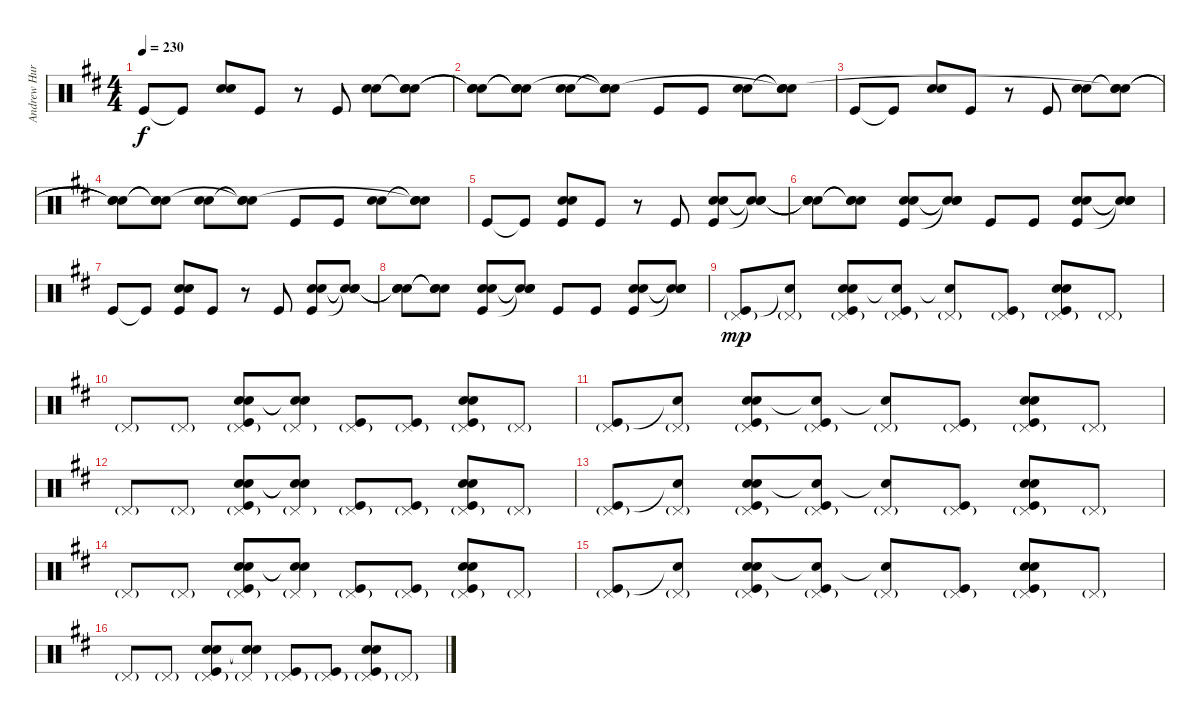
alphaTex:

\track ("Andrew Hurley" "Andrew Hur") {instrument percussion}
\staff {score}
\articulation defaults
\ts (4 4)
\tempo 230
\clef neutral
\ks d "Kick (hit)".8{dy f} "Kick (hit)"{t}.8
("Snare (hit) 2" "Electric Snare (hit)").8 "Kick (hit)".8 r.8 "Kick (hit)".8 ("Electric Snare (hit)" "Snare (hit) 2").8 ("Snare (hit)"{t} "Snare (hit)"{t} "Snare (hit)").8 |
("Snare (hit)"{t} "Snare (hit)"{t} "Snare (hit)"{t}).8 ("Snare (hit)"{t} "Snare (hit)"{t} "Snare (hit)"{t}).8 ("Electric Snare (hit)" "Snare (hit) 2").8 ("Snare (hit)"{t} "Snare (hit)"{t} "Snare (hit)"{t}).8 "Kick (hit)".8 "Kick (hit)".8 ("Electric Snare (hit)" "Snare (hit) 2").8 ("Snare (hit)"{t} "Snare (hit)"{t} "Snare (hit)"{t}).8 |
"Kick (hit)".8 "Kick (hit)"{t}.8 ("Snare (hit) 2" "Electric Snare (hit)").8 "Kick (hit)".8 r.8 "Kick (hit)".8 ("Electric Snare (hit)" "Snare (hit) 2").8 ("Snare (hit)"{t} "Snare (hit)"{t} "Snare (hit)"{t}).8 |
("Snare (hit)"{t} "Snare (hit)"{t} "Snare (hit)"{t}).8 ("Snare (hit)"{t} "Snare (hit)"{t} "Snare (hit)"{t}).8 ("Electric Snare (hit)" "Snare (hit) 2").8 ("Snare (hit)"{t} "Snare (hit)"{t} "Snare (hit)"{t}).8 "Kick (hit)".8 "Kick (hit)".8 ("Electric Snare (hit)" "Snare (hit) 2").8 ("Snare (hit)"{t} "Snare (hit)"{t} "Snare (hit)"{t}).8 |
"Kick (hit)".8 "Kick (hit)"{t}.8 ("Kick (hit)" "Snare (hit) 2" "Electric Snare (hit)").8 "Kick (hit)".8 r.8 "Kick (hit)".8 ("Electric Snare (hit)" "Snare (hit) 2" "Kick (hit)").8 ("Snare (hit)"{t} "Snare (hit)"{t} "Snare (hit)"{t}).8 |
("Snare (hit)"{t} "Snare (hit)"{t} "Snare (hit)"{t}).8 ("Snare (hit)"{t} "Snare (hit)"{t} "Snare (hit)"{t}).8 ("Electric Snare (hit)" "Snare (hit) 2" "Kick (hit)").8 ("Snare (hit)"{t} "Snare (hit)"{t} "Snare (hit)"{t}).8 "Kick (hit)".8 "Kick (hit)".8 ("Electric Snare (hit)" "Snare (hit) 2" "Kick (hit)").8 ("Snare (hit)"{t} "Snare (hit)"{t} "Snare (hit)"{t}).8 |
"Kick (hit)".8 "Kick (hit)"{t}.8 ("Kick (hit)" "Snare (hit) 2" "Electric Snare (hit)").8 "Kick (hit)".8 r.8 "Kick (hit)".8 ("Electric Snare (hit)" "Snare (hit) 2" "Kick (hit)").8 ("Snare (hit)"{t} "Snare (hit)"{t} "Snare (hit)"{t}).8 |
("Snare (hit)"{t} "Snare (hit)"{t} "Snare (hit)"{t}).8 ("Snare (hit)"{t} "Snare (hit)"{t} "Snare (hit)"{t}).8 ("Electric Snare (hit)" "Snare (hit) 2" "Kick (hit)").8 ("Snare (hit)"{t} "Snare (hit)"{t} "Snare (hit)"{t}).8 "Kick (hit)".8 "Kick (hit)".8 ("Electric Snare (hit)" "Snare (hit) 2" "Kick (hit)").8 ("Snare (hit)"{t} "Snare (hit)"{t} "Snare (hit)"{t}).8 |
("Pedal Hi-Hat (hit)"{g} "Kick (hit)").8{dy mp} ("Pedal Hi-Hat (hit)"{g} "Snare (hit)"{t}).8 ("Pedal Hi-Hat (hit)"{g} "Snare (hit) 2" "Electric Snare (hit)" "Kick (hit)").8 ("Pedal Hi-Hat (hit)"{g} "Snare (hit)"{t} "Kick (hit)").8 ("Pedal Hi-Hat (hit)"{g} "Snare (hit)"{t}).8 ("Pedal Hi-Hat (hit)"{g} "Kick (hit)").8 ("Pedal Hi-Hat (hit)"{g} "Snare (hit) 2" "Electric Snare (hit)" "Kick (hit)").8 "Pedal Hi-Hat (hit)"{g}.8 |
"Pedal Hi-Hat (hit)"{g}.8 "Pedal Hi-Hat (hit)"{g}.8 ("Pedal Hi-Hat (hit)"{g} "Snare (hit) 2" "Electric Snare (hit)" "Kick (hit)").8 ("Pedal Hi-Hat (hit)"{g} "Snare (hit)"{t} "Snare (hit)"{t}).8 ("Pedal Hi-Hat (hit)"{g} "Kick (hit)").8 ("Pedal Hi-Hat (hit)"{g} "Kick (hit)").8 ("Pedal Hi-Hat (hit)"{g} "Snare (hit) 2" "Electric Snare (hit)" "Kick (hit)").8 "Pedal Hi-Hat (hit)"{g}.8 |
("Pedal Hi-Hat (hit)"{g} "Kick (hit)").8 ("Pedal Hi-Hat (hit)"{g} "Snare (hit)"{t}).8 ("Pedal Hi-Hat (hit)"{g} "Snare (hit) 2" "Electric Snare (hit)" "Kick (hit)").8 ("Pedal Hi-Hat (hit)"{g} "Snare (hit)"{t} "Kick (hit)").8 ("Pedal Hi-Hat (hit)"{g} "Snare (hit)"{t}).8 ("Pedal Hi-Hat (hit)"{g} "Kick (hit)").8 ("Pedal Hi-Hat (hit)"{g} "Snare (hit) 2" "Electric Snare (hit)" "Kick (hit)").8 "Pedal Hi-Hat (hit)"{g}.8 |
"Pedal Hi-Hat (hit)"{g}.8 "Pedal Hi-Hat (hit)"{g}.8 ("Pedal Hi-Hat (hit)"{g} "Snare (hit) 2" "Electric Snare (hit)" "Kick (hit)").8 ("Pedal Hi-Hat (hit)"{g} "Snare (hit)"{t} "Snare (hit)"{t}).8 ("Pedal Hi-Hat (hit)"{g} "Kick (hit)").8 ("Pedal Hi-Hat (hit)"{g} "Kick (hit)").8 ("Pedal Hi-Hat (hit)"{g} "Snare (hit) 2" "Electric Snare (hit)" "Kick (hit)").8 "Pedal Hi-Hat (hit)"{g}.8 |
("Pedal Hi-Hat (hit)"{g} "Kick (hit)").8 ("Pedal Hi-Hat (hit)"{g} "Snare (hit)"{t}).8 ("Pedal Hi-Hat (hit)"{g} "Snare (hit) 2" "Electric Snare (hit)" "Kick (hit)").8 ("Pedal Hi-Hat (hit)"{g} "Snare (hit)"{t} "Kick (hit)").8 ("Pedal Hi-Hat (hit)"{g} "Snare (hit)"{t}).8 ("Pedal Hi-Hat (hit)"{g} "Kick (hit)").8 ("Pedal Hi-Hat (hit)"{g} "Snare (hit) 2" "Electric Snare (hit)" "Kick (hit)").8 "Pedal Hi-Hat (hit)"{g}.8 |
"Pedal Hi-Hat (hit)"{g}.8 "Pedal Hi-Hat (hit)"{g}.8 ("Pedal Hi-Hat (hit)"{g} "Snare (hit) 2" "Electric Snare (hit)" "Kick (hit)").8 ("Pedal Hi-Hat (hit)"{g} "Snare (hit)"{t} "Snare (hit)"{t}).8 ("Pedal Hi-Hat (hit)"{g} "Kick (hit)").8 ("Pedal Hi-Hat (hit)"{g} "Kick (hit)").8 ("Pedal Hi-Hat (hit)"{g} "Snare (hit) 2" "Electric Snare (hit)" "Kick (hit)").8 "Pedal Hi-Hat (hit)"{g}.8 |
("Pedal Hi-Hat (hit)"{g} "Kick (hit)").8 ("Pedal Hi-Hat (hit)"{g} "Snare (hit)"{t}).8 ("Pedal Hi-Hat (hit)"{g} "Snare (hit) 2" "Electric Snare (hit)" "Kick (hit)").8 ("Pedal Hi-Hat (hit)"{g} "Snare (hit)"{t} "Kick (hit)").8 ("Pedal Hi-Hat (hit)"{g} "Snare (hit)"{t}).8 ("Pedal Hi-Hat (hit)"{g} "Kick (hit)").8 ("Pedal Hi-Hat (hit)"{g} "Snare (hit) 2" "Electric Snare (hit)" "Kick (hit)").8 "Pedal Hi-Hat (hit)"{g}.8 |
"Pedal Hi-Hat (hit)"{g}.8 "Pedal Hi-Hat (hit)"{g}.8 ("Pedal Hi-Hat (hit)"{g} "Snare (hit) 2" "Electric Snare (hit)" "Kick (hit)").8 ("Pedal Hi-Hat (hit)"{g} "Snare (hit)"{t} "Snare (hit)"{t}).8 ("Pedal Hi-Hat (hit)"{g} "Kick (hit)").8 ("Pedal Hi-Hat (hit)"{g} "Kick (hit)").8 ("Pedal Hi-Hat (hit)"{g} "Snare (hit) 2" "Electric Snare (hit)" "Kick (hit)").8 "Pedal Hi-Hat (hit)"{g}.8
